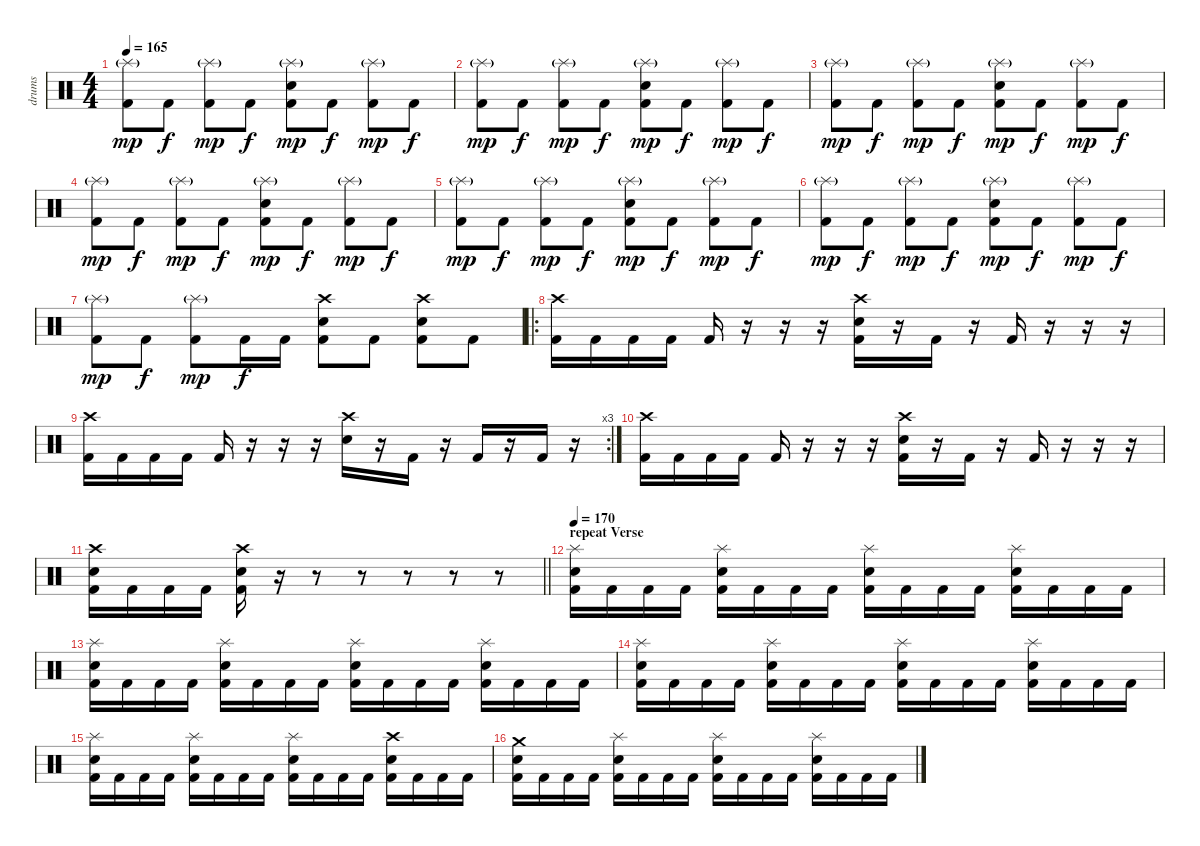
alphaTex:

\track ("drums" "drums") {instrument percussion}
\staff {score}
\articulation defaults
\ts (4 4)
\tempo 165
\clef neutral
\ks c
("Splash (hit)"{g} "Kick (hit) 2").8{dy mp} "Kick (hit) 2".8{dy f} ("Splash (hit)"{g} "Kick (hit) 2").8{dy mp} "Kick (hit) 2".8{dy f} ("Splash (hit)"{g} "Snare (hit) 2" "Kick (hit) 2").8{dy mp} "Kick (hit) 2".8{dy f} ("Splash (hit)"{g} "Kick (hit) 2").8{dy mp} "Kick (hit) 2".8{dy f} |
("Splash (hit)"{g} "Kick (hit) 2").8{dy mp} "Kick (hit) 2".8{dy f} ("Splash (hit)"{g} "Kick (hit) 2").8{dy mp} "Kick (hit) 2".8{dy f} ("Splash (hit)"{g} "Snare (hit) 2" "Kick (hit) 2").8{dy mp} "Kick (hit) 2".8{dy f} ("Splash (hit)"{g} "Kick (hit) 2").8{dy mp} "Kick (hit) 2".8{dy f} |
("Splash (hit)"{g} "Kick (hit) 2").8{dy mp} "Kick (hit) 2".8{dy f} ("Splash (hit)"{g} "Kick (hit) 2").8{dy mp} "Kick (hit) 2".8{dy f} ("Splash (hit)"{g} "Snare (hit) 2" "Kick (hit) 2").8{dy mp} "Kick (hit) 2".8{dy f} ("Splash (hit)"{g} "Kick (hit) 2").8{dy mp} "Kick (hit) 2".8{dy f} |
("Splash (hit)"{g} "Kick (hit) 2").8{dy mp} "Kick (hit) 2".8{dy f} ("Splash (hit)"{g} "Kick (hit) 2").8{dy mp} "Kick (hit) 2".8{dy f} ("Splash (hit)"{g} "Snare (hit) 2" "Kick (hit) 2").8{dy mp} "Kick (hit) 2".8{dy f} ("Splash (hit)"{g} "Kick (hit) 2").8{dy mp} "Kick (hit) 2".8{dy f} |
("Splash (hit)"{g} "Kick (hit) 2").8{dy mp} "Kick (hit) 2".8{dy f} ("Splash (hit)"{g} "Kick (hit) 2").8{dy mp} "Kick (hit) 2".8{dy f} ("Splash (hit)"{g} "Snare (hit) 2" "Kick (hit) 2").8{dy mp} "Kick (hit) 2".8{dy f} ("Splash (hit)"{g} "Kick (hit) 2").8{dy mp} "Kick (hit) 2".8{dy f} |
("Splash (hit)"{g} "Kick (hit) 2").8{dy mp} "Kick (hit) 2".8{dy f} ("Splash (hit)"{g} "Kick (hit) 2").8{dy mp} "Kick (hit) 2".8{dy f} ("Splash (hit)"{g} "Snare (hit) 2" "Kick (hit) 2").8{dy mp} "Kick (hit) 2".8{dy f} ("Splash (hit)"{g} "Kick (hit) 2").8{dy mp} "Kick (hit) 2".8{dy f} |
("Splash (hit)"{g} "Kick (hit) 2").8{dy mp} "Kick (hit) 2".8{dy f} ("Splash (hit)"{g} "Kick (hit) 2").8{dy mp} "Kick (hit) 2".16{dy f} "Kick (hit) 2".16 ("Crash high (hit)" "Snare (hit) 2" "Kick (hit) 2").8 "Kick (hit) 2".8 ("Crash high (hit)" "Snare (hit) 2" "Kick (hit) 2").8 "Kick (hit) 2".8 |
\ro
("Crash high (hit)" "Kick (hit) 2").16 "Kick (hit) 2".16 "Kick (hit) 2".16 "Kick (hit) 2".16 "Kick (hit) 2".16 r.16 r.16 r.16 ("Crash high (hit)" "Snare (hit) 2" "Kick (hit) 2").16 r.16 "Kick (hit) 2".16 r.16 "Kick (hit) 2".16 r.16 r.16 r.16 |
\rc 3
("Crash high (hit)" "Kick (hit) 2").16 "Kick (hit) 2".16 "Kick (hit) 2".16 "Kick (hit) 2".16 "Kick (hit) 2".16 r.16 r.16 r.16 ("Crash high (hit)" "Snare (hit) 2").16 r.16 "Kick (hit) 2".16 r.16 "Kick (hit) 2".16 r.16 "Kick (hit) 2".16 r.16 |
("Crash high (hit)" "Kick (hit) 2").16 "Kick (hit) 2".16 "Kick (hit) 2".16 "Kick (hit) 2".16 "Kick (hit) 2".16 r.16 r.16 r.16 ("Crash high (hit)" "Snare (hit) 2" "Kick (hit) 2").16 r.16 "Kick (hit) 2".16 r.16 "Kick (hit) 2".16 r.16 r.16 r.16 |
\barLineRight lightlight
("Crash high (hit)" "Snare (hit) 2" "Kick (hit) 2").16 "Kick (hit) 2".16 "Kick (hit) 2".16 "Kick (hit) 2".16 ("Crash high (hit)" "Snare (hit) 2" "Kick (hit) 2").16 r.16 r.8 r.8 r.8 r.8 r.8 |
\section ("" "repeat Verse")
\tempo 170
("Splash (hit)" "Snare (hit) 2" "Kick (hit) 2").16 "Kick (hit) 2".16 "Kick (hit) 2".16 "Kick (hit) 2".16 ("Splash (hit)" "Snare (hit) 2" "Kick (hit) 2").16 "Kick (hit) 2".16 "Kick (hit) 2".16 "Kick (hit) 2".16 ("Splash (hit)" "Snare (hit) 2" "Kick (hit) 2").16 "Kick (hit) 2".16 "Kick (hit) 2".16 "Kick (hit) 2".16 ("Splash (hit)" "Snare (hit) 2" "Kick (hit) 2").16 "Kick (hit) 2".16 "Kick (hit) 2".16 "Kick (hit) 2".16 |
("Splash (hit)" "Snare (hit) 2" "Kick (hit) 2").16 "Kick (hit) 2".16 "Kick (hit) 2".16 "Kick (hit) 2".16 ("Splash (hit)" "Snare (hit) 2" "Kick (hit) 2").16 "Kick (hit) 2".16 "Kick (hit) 2".16 "Kick (hit) 2".16 ("Splash (hit)" "Snare (hit) 2" "Kick (hit) 2").16 "Kick (hit) 2".16 "Kick (hit) 2".16 "Kick (hit) 2".16 ("Splash (hit)" "Snare (hit) 2" "Kick (hit) 2").16 "Kick (hit) 2".16 "Kick (hit) 2".16 "Kick (hit) 2".16 |
("Splash (hit)" "Snare (hit) 2" "Kick (hit) 2").16 "Kick (hit) 2".16 "Kick (hit) 2".16 "Kick (hit) 2".16 ("Splash (hit)" "Snare (hit) 2" "Kick (hit) 2").16 "Kick (hit) 2".16 "Kick (hit) 2".16 "Kick (hit) 2".16 ("Splash (hit)" "Snare (hit) 2" "Kick (hit) 2").16 "Kick (hit) 2".16 "Kick (hit) 2".16 "Kick (hit) 2".16 ("Splash (hit)" "Snare (hit) 2" "Kick (hit) 2").16 "Kick (hit) 2".16 "Kick (hit) 2".16 "Kick (hit) 2".16 |
("Splash (hit)" "Snare (hit) 2" "Kick (hit) 2").16 "Kick (hit) 2".16 "Kick (hit) 2".16 "Kick (hit) 2".16 ("Splash (hit)" "Snare (hit) 2" "Kick (hit) 2").16 "Kick (hit) 2".16 "Kick (hit) 2".16 "Kick (hit) 2".16 ("Splash (hit)" "Snare (hit) 2" "Kick (hit) 2").16 "Kick (hit) 2".16 "Kick (hit) 2".16 "Kick (hit) 2".16 ("Crash high (hit)" "Snare (hit) 2" "Kick (hit) 2").16 "Kick (hit) 2".16 "Kick (hit) 2".16 "Kick (hit) 2".16 |
("Crash medium (hit)" "Snare (hit) 2" "Kick (hit) 2").16 "Kick (hit) 2".16 "Kick (hit) 2".16 "Kick (hit) 2".16 ("Splash (hit)" "Snare (hit) 2" "Kick (hit) 2").16 "Kick (hit) 2".16 "Kick (hit) 2".16 "Kick (hit) 2".16 ("Splash (hit)" "Snare (hit) 2" "Kick (hit) 2").16 "Kick (hit) 2".16 "Kick (hit) 2".16 "Kick (hit) 2".16 ("Splash (hit)" "Snare (hit) 2" "Kick (hit) 2").16 "Kick (hit) 2".16 "Kick (hit) 2".16 "Kick (hit) 2".16
